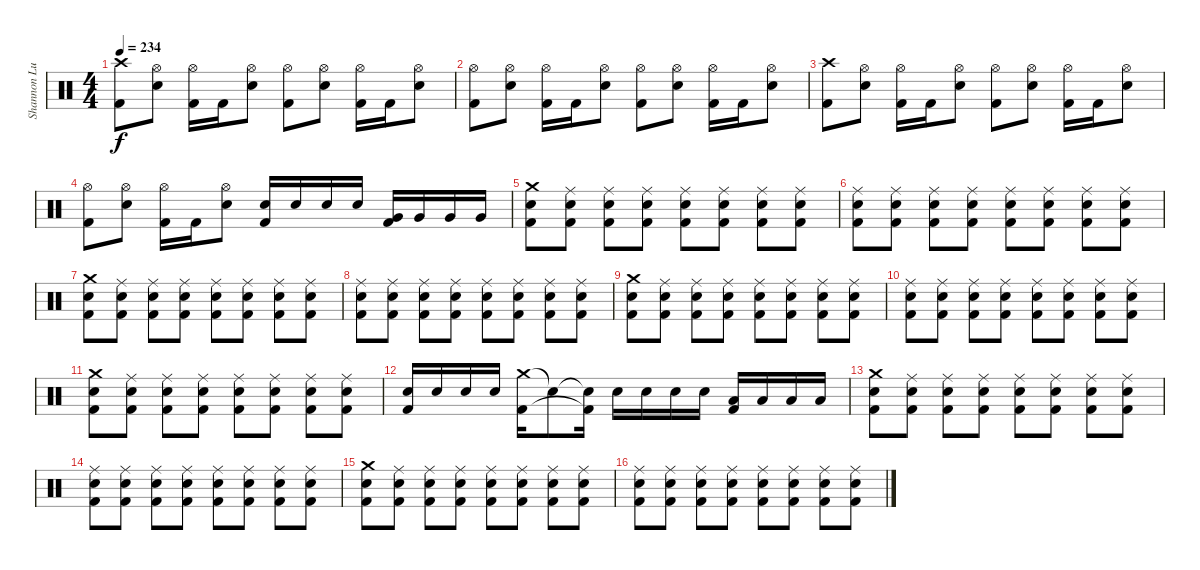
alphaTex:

\track ("Shannon Lucas (Drums)" "Shannon Lu") {instrument percussion}
\staff {score}
\articulation defaults
\ts (4 4)
\tempo 234
\clef neutral
\ks c
("Crash high (hit)" "Kick (hit) 2").8{dy f} ("Hi-Hat (open)" "Electric Snare (hit)").8 ("Hi-Hat (open)" "Kick (hit) 2").16 "Kick (hit) 2".16 ("Hi-Hat (open)" "Electric Snare (hit)").8 ("Hi-Hat (open)" "Kick (hit) 2").8 ("Hi-Hat (open)" "Electric Snare (hit)").8 ("Hi-Hat (open)" "Kick (hit) 2").16 "Kick (hit) 2".16 ("Hi-Hat (open)" "Electric Snare (hit)").8 |
("Hi-Hat (open)" "Kick (hit) 2").8 ("Hi-Hat (open)" "Electric Snare (hit)").8 ("Hi-Hat (open)" "Kick (hit) 2").16 "Kick (hit) 2".16 ("Hi-Hat (open)" "Electric Snare (hit)").8 ("Hi-Hat (open)" "Kick (hit) 2").8 ("Hi-Hat (open)" "Electric Snare (hit)").8 ("Hi-Hat (open)" "Kick (hit) 2").16 "Kick (hit) 2".16 ("Hi-Hat (open)" "Electric Snare (hit)").8 |
("Crash high (hit)" "Kick (hit) 2").8 ("Hi-Hat (open)" "Electric Snare (hit)").8 ("Hi-Hat (open)" "Kick (hit) 2").16 "Kick (hit) 2".16 ("Hi-Hat (open)" "Electric Snare (hit)").8 ("Hi-Hat (open)" "Kick (hit) 2").8 ("Hi-Hat (open)" "Electric Snare (hit)").8 ("Hi-Hat (open)" "Kick (hit) 2").16 "Kick (hit) 2".16 ("Hi-Hat (open)" "Electric Snare (hit)").8 |
("Hi-Hat (open)" "Kick (hit) 2").8 ("Hi-Hat (open)" "Electric Snare (hit)").8 ("Hi-Hat (open)" "Kick (hit) 2").16 "Kick (hit) 2".16 ("Hi-Hat (open)" "Electric Snare (hit)").8 ("Electric Snare (hit)" "Kick (hit) 2").16 "Electric Snare (hit)".16 "Electric Snare (hit)".16 "Electric Snare (hit)".16 ("Very Low Tom (hit)" "Kick (hit) 2").16 "Very Low Tom (hit)".16 "Very Low Tom (hit)".16 "Very Low Tom (hit)".16 |
("Crash medium (hit)" "Electric Snare (hit)" "Kick (hit) 2").8 ("Ride (middle)" "Electric Snare (hit)" "Kick (hit) 2").8 ("Ride (middle)" "Electric Snare (hit)" "Kick (hit) 2").8 ("Ride (middle)" "Electric Snare (hit)" "Kick (hit) 2").8 ("Ride (middle)" "Electric Snare (hit)" "Kick (hit) 2").8 ("Ride (middle)" "Electric Snare (hit)" "Kick (hit) 2").8 ("Ride (middle)" "Electric Snare (hit)" "Kick (hit) 2").8 ("Ride (middle)" "Electric Snare (hit)" "Kick (hit) 2").8 |
("Ride (middle)" "Electric Snare (hit)" "Kick (hit) 2").8 ("Ride (middle)" "Electric Snare (hit)" "Kick (hit) 2").8 ("Ride (middle)" "Electric Snare (hit)" "Kick (hit) 2").8 ("Ride (middle)" "Electric Snare (hit)" "Kick (hit) 2").8 ("Ride (middle)" "Electric Snare (hit)" "Kick (hit) 2").8 ("Ride (middle)" "Electric Snare (hit)" "Kick (hit) 2").8 ("Ride (middle)" "Electric Snare (hit)" "Kick (hit) 2").8 ("Ride (middle)" "Electric Snare (hit)" "Kick (hit) 2").8 |
("Crash medium (hit)" "Electric Snare (hit)" "Kick (hit) 2").8 ("Ride (middle)" "Electric Snare (hit)" "Kick (hit) 2").8 ("Ride (middle)" "Electric Snare (hit)" "Kick (hit) 2").8 ("Ride (middle)" "Electric Snare (hit)" "Kick (hit) 2").8 ("Ride (middle)" "Electric Snare (hit)" "Kick (hit) 2").8 ("Ride (middle)" "Electric Snare (hit)" "Kick (hit) 2").8 ("Ride (middle)" "Electric Snare (hit)" "Kick (hit) 2").8 ("Ride (middle)" "Electric Snare (hit)" "Kick (hit) 2").8 |
("Ride (middle)" "Electric Snare (hit)" "Kick (hit) 2").8 ("Ride (middle)" "Electric Snare (hit)" "Kick (hit) 2").8 ("Ride (middle)" "Electric Snare (hit)" "Kick (hit) 2").8 ("Ride (middle)" "Electric Snare (hit)" "Kick (hit) 2").8 ("Ride (middle)" "Electric Snare (hit)" "Kick (hit) 2").8 ("Ride (middle)" "Electric Snare (hit)" "Kick (hit) 2").8 ("Ride (middle)" "Electric Snare (hit)" "Kick (hit) 2").8 ("Ride (middle)" "Electric Snare (hit)" "Kick (hit) 2").8 |
("Crash medium (hit)" "Electric Snare (hit)" "Kick (hit) 2").8 ("Ride (middle)" "Electric Snare (hit)" "Kick (hit) 2").8 ("Ride (middle)" "Electric Snare (hit)" "Kick (hit) 2").8 ("Ride (middle)" "Electric Snare (hit)" "Kick (hit) 2").8 ("Ride (middle)" "Electric Snare (hit)" "Kick (hit) 2").8 ("Ride (middle)" "Electric Snare (hit)" "Kick (hit) 2").8 ("Ride (middle)" "Electric Snare (hit)" "Kick (hit) 2").8 ("Ride (middle)" "Electric Snare (hit)" "Kick (hit) 2").8 |
("Ride (middle)" "Electric Snare (hit)" "Kick (hit) 2").8 ("Ride (middle)" "Electric Snare (hit)" "Kick (hit) 2").8 ("Ride (middle)" "Electric Snare (hit)" "Kick (hit) 2").8 ("Ride (middle)" "Electric Snare (hit)" "Kick (hit) 2").8 ("Ride (middle)" "Electric Snare (hit)" "Kick (hit) 2").8 ("Ride (middle)" "Electric Snare (hit)" "Kick (hit) 2").8 ("Ride (middle)" "Electric Snare (hit)" "Kick (hit) 2").8 ("Ride (middle)" "Electric Snare (hit)" "Kick (hit) 2").8 |
("Crash medium (hit)" "Electric Snare (hit)" "Kick (hit) 2").8 ("Ride (middle)" "Electric Snare (hit)" "Kick (hit) 2").8 ("Ride (middle)" "Electric Snare (hit)" "Kick (hit) 2").8 ("Ride (middle)" "Electric Snare (hit)" "Kick (hit) 2").8 ("Ride (middle)" "Electric Snare (hit)" "Kick (hit) 2").8 ("Ride (middle)" "Electric Snare (hit)" "Kick (hit) 2").8 ("Ride (middle)" "Electric Snare (hit)" "Kick (hit) 2").8 ("Ride (middle)" "Electric Snare (hit)" "Kick (hit) 2").8 |
("Electric Snare (hit)" "Kick (hit) 2").16 "Electric Snare (hit)".16 "Electric Snare (hit)".16 "Electric Snare (hit)".16 ("Crash medium (hit)" "Kick (hit) 2").16 "Snare (hit)"{t}.8 ("Electric Snare (hit)"{t} "Kick (hit) 2"{t}).16 "Electric Snare (hit)".16 "Electric Snare (hit)".16 "Electric Snare (hit)".16 "Electric Snare (hit)".16 ("Low Tom (hit)" "Kick (hit) 2").16 "Low Tom (hit)".16 "Low Tom (hit)".16 "Low Tom (hit)".16 |
("Crash medium (hit)" "Electric Snare (hit)" "Kick (hit) 2").8 ("Ride (middle)" "Electric Snare (hit)" "Kick (hit) 2").8 ("Ride (middle)" "Electric Snare (hit)" "Kick (hit) 2").8 ("Ride (middle)" "Electric Snare (hit)" "Kick (hit) 2").8 ("Ride (middle)" "Electric Snare (hit)" "Kick (hit) 2").8 ("Ride (middle)" "Electric Snare (hit)" "Kick (hit) 2").8 ("Ride (middle)" "Electric Snare (hit)" "Kick (hit) 2").8 ("Ride (middle)" "Electric Snare (hit)" "Kick (hit) 2").8 |
("Ride (middle)" "Electric Snare (hit)" "Kick (hit) 2").8 ("Ride (middle)" "Electric Snare (hit)" "Kick (hit) 2").8 ("Ride (middle)" "Electric Snare (hit)" "Kick (hit) 2").8 ("Ride (middle)" "Electric Snare (hit)" "Kick (hit) 2").8 ("Ride (middle)" "Electric Snare (hit)" "Kick (hit) 2").8 ("Ride (middle)" "Electric Snare (hit)" "Kick (hit) 2").8 ("Ride (middle)" "Electric Snare (hit)" "Kick (hit) 2").8 ("Ride (middle)" "Electric Snare (hit)" "Kick (hit) 2").8 |
("Crash medium (hit)" "Electric Snare (hit)" "Kick (hit) 2").8 ("Ride (middle)" "Electric Snare (hit)" "Kick (hit) 2").8 ("Ride (middle)" "Electric Snare (hit)" "Kick (hit) 2").8 ("Ride (middle)" "Electric Snare (hit)" "Kick (hit) 2").8 ("Ride (middle)" "Electric Snare (hit)" "Kick (hit) 2").8 ("Ride (middle)" "Electric Snare (hit)" "Kick (hit) 2").8 ("Ride (middle)" "Electric Snare (hit)" "Kick (hit) 2").8 ("Ride (middle)" "Electric Snare (hit)" "Kick (hit) 2").8 |
("Ride (middle)" "Electric Snare (hit)" "Kick (hit) 2").8 ("Ride (middle)" "Electric Snare (hit)" "Kick (hit) 2").8 ("Ride (middle)" "Electric Snare (hit)" "Kick (hit) 2").8 ("Ride (middle)" "Electric Snare (hit)" "Kick (hit) 2").8 ("Ride (middle)" "Electric Snare (hit)" "Kick (hit) 2").8 ("Ride (middle)" "Electric Snare (hit)" "Kick (hit) 2").8 ("Ride (middle)" "Electric Snare (hit)" "Kick (hit) 2").8 ("Ride (middle)" "Electric Snare (hit)" "Kick (hit) 2").8
